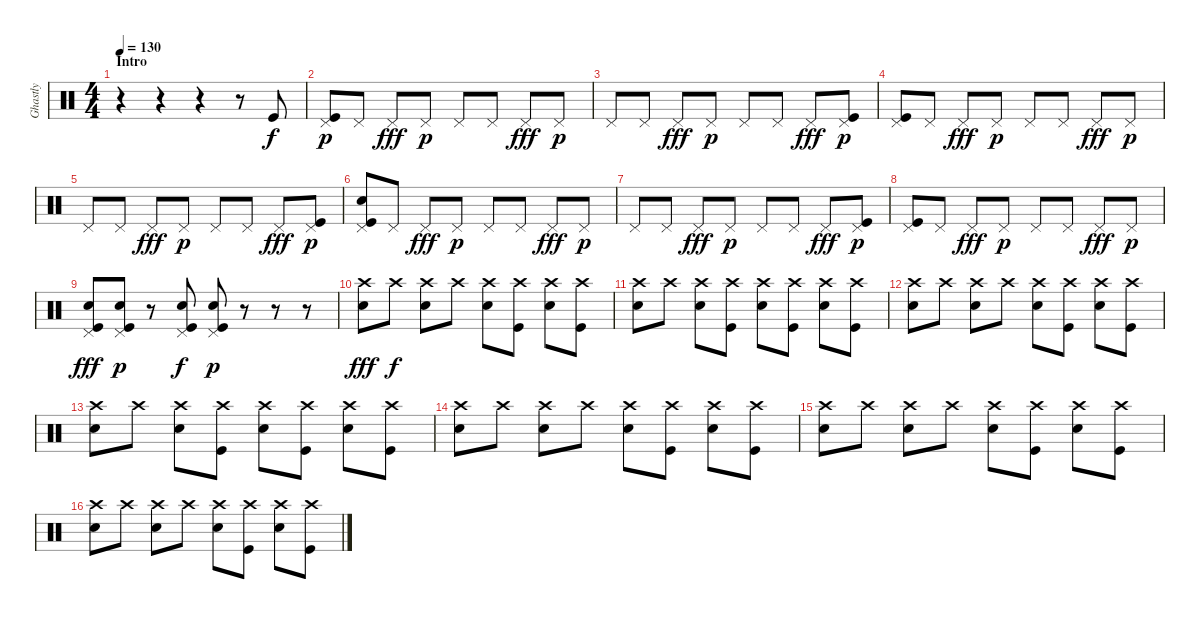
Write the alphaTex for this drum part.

\track ("Ghastly" "Ghastly") {instrument percussion}
\staff {score}
\articulation defaults
\ts (4 4)
\section ("" "Intro")
\tempo 130
\clef neutral
\ks c
r.4{dy f} r.4 r.4 r.8 "Kick (hit)".8 |
("Pedal Hi-Hat (hit)" "Kick (hit)").8{dy p} "Pedal Hi-Hat (hit)".8 "Pedal Hi-Hat (hit)".8{dy fff} "Pedal Hi-Hat (hit)".8{dy p} "Pedal Hi-Hat (hit)".8 "Pedal Hi-Hat (hit)".8 "Pedal Hi-Hat (hit)".8{dy fff} "Pedal Hi-Hat (hit)".8{dy p} |
"Pedal Hi-Hat (hit)".8 "Pedal Hi-Hat (hit)".8 "Pedal Hi-Hat (hit)".8{dy fff} "Pedal Hi-Hat (hit)".8{dy p} "Pedal Hi-Hat (hit)".8 "Pedal Hi-Hat (hit)".8 "Pedal Hi-Hat (hit)".8{dy fff} ("Pedal Hi-Hat (hit)" "Kick (hit)").8{dy p} |
("Pedal Hi-Hat (hit)" "Kick (hit)").8 "Pedal Hi-Hat (hit)".8 "Pedal Hi-Hat (hit)".8{dy fff} "Pedal Hi-Hat (hit)".8{dy p} "Pedal Hi-Hat (hit)".8 "Pedal Hi-Hat (hit)".8 "Pedal Hi-Hat (hit)".8{dy fff} "Pedal Hi-Hat (hit)".8{dy p} |
"Pedal Hi-Hat (hit)".8 "Pedal Hi-Hat (hit)".8 "Pedal Hi-Hat (hit)".8{dy fff} "Pedal Hi-Hat (hit)".8{dy p} "Pedal Hi-Hat (hit)".8 "Pedal Hi-Hat (hit)".8 "Pedal Hi-Hat (hit)".8{dy fff} ("Pedal Hi-Hat (hit)" "Kick (hit)").8{dy p} |
("Snare (hit)"{x} "Pedal Hi-Hat (hit)" "Kick (hit)").8 "Pedal Hi-Hat (hit)".8 "Pedal Hi-Hat (hit)".8{dy fff} "Pedal Hi-Hat (hit)".8{dy p} "Pedal Hi-Hat (hit)".8 "Pedal Hi-Hat (hit)".8 "Pedal Hi-Hat (hit)".8{dy fff} "Pedal Hi-Hat (hit)".8{dy p} |
"Pedal Hi-Hat (hit)".8 "Pedal Hi-Hat (hit)".8 "Pedal Hi-Hat (hit)".8{dy fff} "Pedal Hi-Hat (hit)".8{dy p} "Pedal Hi-Hat (hit)".8 "Pedal Hi-Hat (hit)".8 "Pedal Hi-Hat (hit)".8{dy fff} ("Pedal Hi-Hat (hit)" "Kick (hit)").8{dy p} |
("Pedal Hi-Hat (hit)" "Kick (hit)").8 "Pedal Hi-Hat (hit)".8 "Pedal Hi-Hat (hit)".8{dy fff} "Pedal Hi-Hat (hit)".8{dy p} "Pedal Hi-Hat (hit)".8 "Pedal Hi-Hat (hit)".8 "Pedal Hi-Hat (hit)".8{dy fff} "Pedal Hi-Hat (hit)".8{dy p} |
("Pedal Hi-Hat (hit)" "Kick (hit)" "Electric Snare (hit)").8{dy fff} ("Pedal Hi-Hat (hit)" "Kick (hit)" "Electric Snare (hit)").8{dy p} r.8 ("Pedal Hi-Hat (hit)" "Kick (hit)" "Electric Snare (hit)").8{dy f} ("Pedal Hi-Hat (hit)" "Kick (hit)" "Electric Snare (hit)").8{dy p} r.8 r.8 r.8 |
("Crash high (hit)" "Electric Snare (hit)").8{dy fff} "Crash high (hit)".8{dy f} ("Crash high (hit)" "Electric Snare (hit)").8 "Crash high (hit)".8 ("Crash high (hit)" "Electric Snare (hit)").8 ("Crash high (hit)" "Kick (hit)").8 ("Crash high (hit)" "Electric Snare (hit)").8 ("Crash high (hit)" "Kick (hit)").8 |
("Crash high (hit)" "Electric Snare (hit)").8 "Crash high (hit)".8 ("Crash high (hit)" "Electric Snare (hit)").8 ("Crash high (hit)" "Kick (hit)").8 ("Crash high (hit)" "Electric Snare (hit)").8 ("Crash high (hit)" "Kick (hit)").8 ("Crash high (hit)" "Electric Snare (hit)").8 ("Crash high (hit)" "Kick (hit)").8 |
("Crash high (hit)" "Electric Snare (hit)").8 "Crash high (hit)".8 ("Crash high (hit)" "Electric Snare (hit)").8 "Crash high (hit)".8 ("Crash high (hit)" "Electric Snare (hit)").8 ("Crash high (hit)" "Kick (hit)").8 ("Crash high (hit)" "Electric Snare (hit)").8 ("Crash high (hit)" "Kick (hit)").8 |
("Crash high (hit)" "Electric Snare (hit)").8 "Crash high (hit)".8 ("Crash high (hit)" "Electric Snare (hit)").8 ("Crash high (hit)" "Kick (hit)").8 ("Crash high (hit)" "Electric Snare (hit)").8 ("Crash high (hit)" "Kick (hit)").8 ("Crash high (hit)" "Electric Snare (hit)").8 ("Crash high (hit)" "Kick (hit)").8 |
("Crash high (hit)" "Electric Snare (hit)").8 "Crash high (hit)".8 ("Crash high (hit)" "Electric Snare (hit)").8 "Crash high (hit)".8 ("Crash high (hit)" "Electric Snare (hit)").8 ("Crash high (hit)" "Kick (hit)").8 ("Crash high (hit)" "Electric Snare (hit)").8 ("Crash high (hit)" "Kick (hit)").8 |
("Crash high (hit)" "Electric Snare (hit)").8 "Crash high (hit)".8 ("Crash high (hit)" "Electric Snare (hit)").8 "Crash high (hit)".8 ("Crash high (hit)" "Electric Snare (hit)").8 ("Crash high (hit)" "Kick (hit)").8 ("Crash high (hit)" "Electric Snare (hit)").8 ("Crash high (hit)" "Kick (hit)").8 |
("Crash high (hit)" "Electric Snare (hit)").8 "Crash high (hit)".8 ("Crash high (hit)" "Electric Snare (hit)").8 "Crash high (hit)".8 ("Crash high (hit)" "Electric Snare (hit)").8 ("Crash high (hit)" "Kick (hit)").8 ("Crash high (hit)" "Electric Snare (hit)").8 ("Crash high (hit)" "Kick (hit)").8
